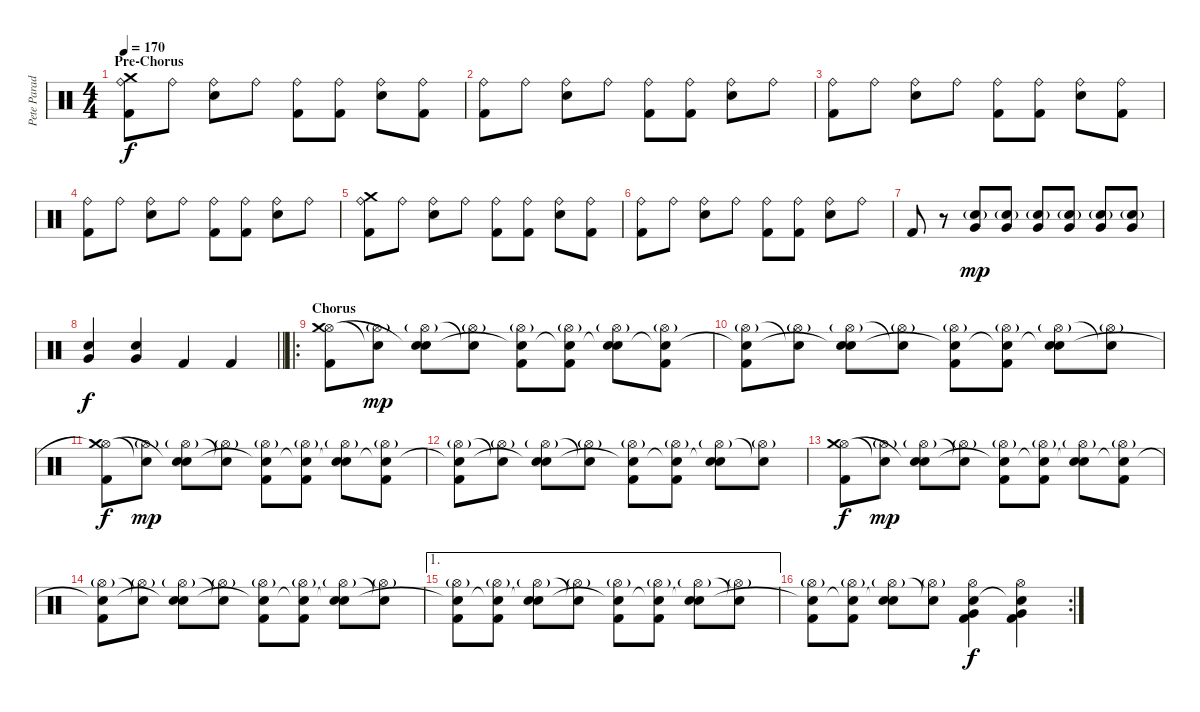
\track ("Pete Parada" "Pete Parad") {instrument percussion}
\staff {score}
\articulation defaults
\ts (4 4)
\section ("" "Pre-Chorus")
\tempo 170
\clef neutral
\ks c
("Kick (hit) 2" "Ride (bell)" "Crash medium (hit)").8{dy f} "Ride (bell)".8 ("Snare (hit) 2" "Ride (bell)").8 "Ride (bell)".8 ("Kick (hit) 2" "Ride (bell)").8 ("Kick (hit) 2" "Ride (bell)").8 ("Snare (hit) 2" "Ride (bell)").8 ("Kick (hit) 2" "Ride (bell)").8 |
("Kick (hit) 2" "Ride (bell)").8 "Ride (bell)".8 ("Snare (hit) 2" "Ride (bell)").8 "Ride (bell)".8 ("Kick (hit) 2" "Ride (bell)").8 ("Kick (hit) 2" "Ride (bell)").8 ("Snare (hit) 2" "Ride (bell)").8 "Ride (bell)".8 |
("Kick (hit) 2" "Ride (bell)").8 "Ride (bell)".8 ("Snare (hit) 2" "Ride (bell)").8 "Ride (bell)".8 ("Kick (hit) 2" "Ride (bell)").8 ("Kick (hit) 2" "Ride (bell)").8 ("Snare (hit) 2" "Ride (bell)").8 ("Kick (hit) 2" "Ride (bell)").8 |
("Kick (hit) 2" "Ride (bell)").8 "Ride (bell)".8 ("Snare (hit) 2" "Ride (bell)").8 "Ride (bell)".8 ("Kick (hit) 2" "Ride (bell)").8 ("Kick (hit) 2" "Ride (bell)").8 ("Snare (hit) 2" "Ride (bell)").8 "Ride (bell)".8 |
("Kick (hit) 2" "Ride (bell)" "Crash medium (hit)").8 "Ride (bell)".8 ("Snare (hit) 2" "Ride (bell)").8 "Ride (bell)".8 ("Kick (hit) 2" "Ride (bell)").8 ("Kick (hit) 2" "Ride (bell)").8 ("Snare (hit) 2" "Ride (bell)").8 ("Kick (hit) 2" "Ride (bell)").8 |
("Kick (hit) 2" "Ride (bell)").8 "Ride (bell)".8 ("Snare (hit) 2" "Ride (bell)").8 "Ride (bell)".8 ("Kick (hit) 2" "Ride (bell)").8 ("Kick (hit) 2" "Ride (bell)").8 ("Snare (hit) 2" "Ride (bell)").8 "Ride (bell)".8 |
"Kick (hit) 2".8 r.8 ("Snare (hit) 2"{g} "Very Low Tom (hit)").8{dy mp} ("Snare (hit) 2"{g} "Very Low Tom (hit)").8 ("Snare (hit) 2"{g} "Very Low Tom (hit)").8 ("Snare (hit) 2"{g} "Very Low Tom (hit)").8 ("Snare (hit) 2"{g} "Very Low Tom (hit)").8 ("Snare (hit) 2"{g} "Very Low Tom (hit)").8 |
\barLineRight lightlight
("Snare (hit) 2" "Very Low Tom (hit)").4{dy f} ("Snare (hit) 2" "Very Low Tom (hit)").4 "Kick (hit) 2".4 "Kick (hit) 2".4 |
\ro
\section ("" "Chorus")
("Kick (hit) 2" "Hi-Hat (open)" "Crash medium (hit)").8 ("Hi-Hat (open)"{g} "Snare (hit)"{t}).8{dy mp} ("Snare (hit) 2" "Hi-Hat (open)"{g} "Snare (hit)"{t}).8 ("Hi-Hat (open)"{g} "Snare (hit)"{t}).8 ("Kick (hit) 2" "Hi-Hat (open)"{g} "Snare (hit)"{t}).8 ("Kick (hit) 2" "Hi-Hat (open)"{g} "Snare (hit)"{t}).8 ("Snare (hit) 2" "Hi-Hat (open)"{g} "Snare (hit)"{t}).8 ("Kick (hit) 2" "Hi-Hat (open)"{g} "Snare (hit)"{t}).8 |
("Kick (hit) 2" "Hi-Hat (open)"{g} "Snare (hit)"{t}).8 ("Hi-Hat (open)"{g} "Snare (hit)"{t}).8 ("Snare (hit) 2" "Hi-Hat (open)"{g} "Snare (hit)"{t}).8 ("Hi-Hat (open)"{g} "Snare (hit)"{t}).8 ("Kick (hit) 2" "Hi-Hat (open)"{g} "Snare (hit)"{t}).8 ("Kick (hit) 2" "Hi-Hat (open)"{g} "Snare (hit)"{t}).8 ("Snare (hit) 2" "Hi-Hat (open)"{g} "Snare (hit)"{t}).8 ("Hi-Hat (open)"{g} "Snare (hit)"{t}).8 |
("Kick (hit) 2" "Hi-Hat (open)" "Crash medium (hit)"{t}).8{dy f} ("Hi-Hat (open)"{g} "Snare (hit)"{t}).8{dy mp} ("Snare (hit) 2" "Hi-Hat (open)"{g} "Snare (hit)"{t}).8 ("Hi-Hat (open)"{g} "Snare (hit)"{t}).8 ("Kick (hit) 2" "Hi-Hat (open)"{g} "Snare (hit)"{t}).8 ("Kick (hit) 2" "Hi-Hat (open)"{g} "Snare (hit)"{t}).8 ("Snare (hit) 2" "Hi-Hat (open)"{g} "Snare (hit)"{t}).8 ("Kick (hit) 2" "Hi-Hat (open)"{g} "Snare (hit)"{t}).8 |
("Kick (hit) 2" "Hi-Hat (open)"{g} "Snare (hit)"{t}).8 ("Hi-Hat (open)"{g} "Snare (hit)"{t}).8 ("Snare (hit) 2" "Hi-Hat (open)"{g} "Snare (hit)"{t}).8 ("Hi-Hat (open)"{g} "Snare (hit)"{t}).8 ("Kick (hit) 2" "Hi-Hat (open)"{g} "Snare (hit)"{t}).8 ("Kick (hit) 2" "Hi-Hat (open)"{g} "Snare (hit)"{t}).8 ("Snare (hit) 2" "Hi-Hat (open)"{g} "Snare (hit)"{t}).8 ("Hi-Hat (open)"{g} "Snare (hit)"{t}).8 |
("Kick (hit) 2" "Hi-Hat (open)" "Crash medium (hit)").8{dy f} ("Hi-Hat (open)"{g} "Snare (hit)"{t}).8{dy mp} ("Snare (hit) 2" "Hi-Hat (open)"{g} "Snare (hit)"{t}).8 ("Hi-Hat (open)"{g} "Snare (hit)"{t}).8 ("Kick (hit) 2" "Hi-Hat (open)"{g} "Snare (hit)"{t}).8 ("Kick (hit) 2" "Hi-Hat (open)"{g} "Snare (hit)"{t}).8 ("Snare (hit) 2" "Hi-Hat (open)"{g} "Snare (hit)"{t}).8 ("Kick (hit) 2" "Hi-Hat (open)"{g} "Snare (hit)"{t}).8 |
("Kick (hit) 2" "Hi-Hat (open)"{g} "Snare (hit)"{t}).8 ("Hi-Hat (open)"{g} "Snare (hit)"{t}).8 ("Snare (hit) 2" "Hi-Hat (open)"{g} "Snare (hit)"{t}).8 ("Hi-Hat (open)"{g} "Snare (hit)"{t}).8 ("Kick (hit) 2" "Hi-Hat (open)"{g} "Snare (hit)"{t}).8 ("Kick (hit) 2" "Hi-Hat (open)"{g} "Snare (hit)"{t}).8 ("Snare (hit) 2" "Hi-Hat (open)"{g} "Snare (hit)"{t}).8 ("Hi-Hat (open)"{g} "Snare (hit)"{t}).8 |
\ae 1
("Kick (hit) 2" "Hi-Hat (open)"{g} "Snare (hit)"{t}).8 ("Kick (hit) 2" "Hi-Hat (open)"{g} "Snare (hit)"{t}).8 ("Snare (hit) 2" "Hi-Hat (open)"{g} "Snare (hit)"{t}).8 ("Hi-Hat (open)"{g} "Snare (hit)"{t}).8 ("Kick (hit) 2" "Hi-Hat (open)"{g} "Snare (hit)"{t}).8 ("Kick (hit) 2" "Hi-Hat (open)"{g} "Snare (hit)"{t}).8 ("Snare (hit) 2" "Hi-Hat (open)"{g} "Snare (hit)"{t}).8 ("Hi-Hat (open)"{g} "Snare (hit)"{t}).8 |
\rc 2
("Kick (hit) 2" "Hi-Hat (open)"{g} "Snare (hit)"{t}).8 ("Kick (hit) 2" "Hi-Hat (open)"{g} "Snare (hit)"{t}).8 ("Snare (hit) 2" "Hi-Hat (open)"{g} "Snare (hit)"{t}).8 ("Hi-Hat (open)"{g} "Snare (hit)"{t}).8 ("Kick (hit) 2" "Very Low Tom (hit)" "Hi-Hat (open)" "Snare (hit)").4{dy f} ("Kick (hit) 2" "Very Low Tom (hit)" "Hi-Hat (open)" "Snare (hit)"{t}).4
